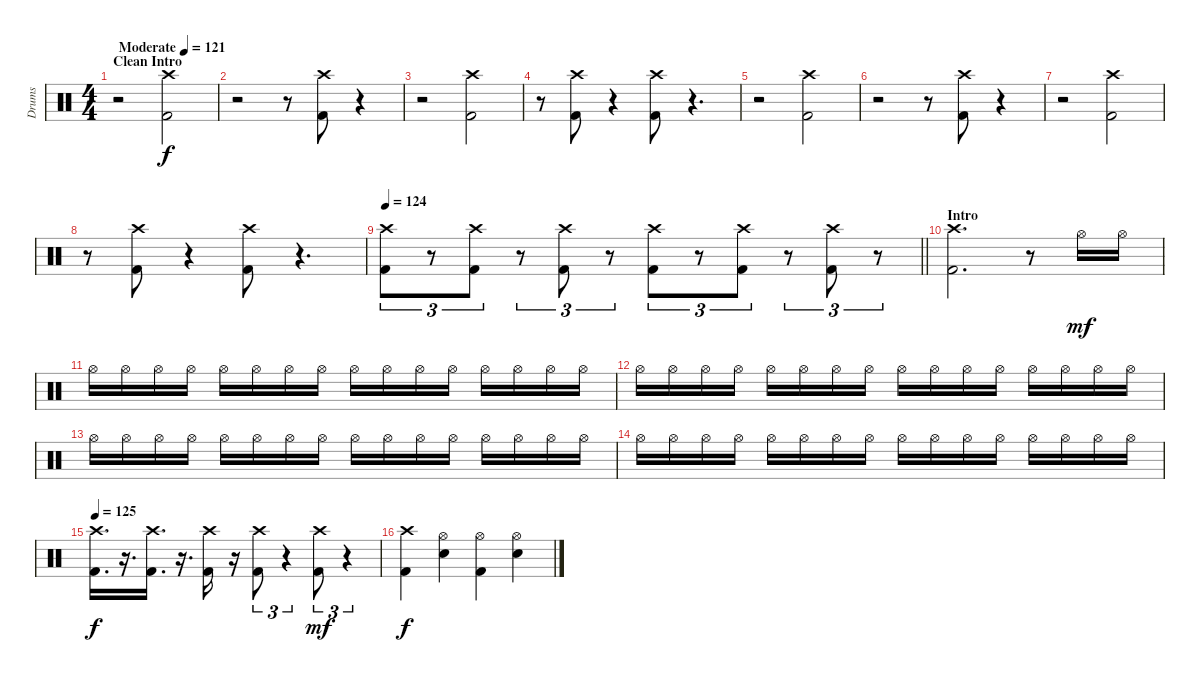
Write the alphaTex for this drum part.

\track ("Drums" "Drums") {instrument percussion}
\staff {score}
\articulation defaults
\ts (4 4)
\section ("" "Clean Intro")
\tempo (121 "Moderate")
\clef neutral
\ks c
r.2{dy f} ("Crash high (hit)" "Kick (hit) 2").2 |
r.2 r.8 ("Crash high (hit)" "Kick (hit) 2").8 r.4 |
r.2 ("Crash high (hit)" "Kick (hit) 2").2 |
r.8 ("Crash high (hit)" "Kick (hit) 2").8 r.4 ("Crash high (hit)" "Kick (hit) 2").8 r.4{d} |
r.2 ("Crash high (hit)" "Kick (hit) 2").2 |
r.2 r.8 ("Crash high (hit)" "Kick (hit) 2").8 r.4 |
r.2 ("Crash high (hit)" "Kick (hit) 2").2 |
r.8 ("Crash high (hit)" "Kick (hit) 2").8 r.4 ("Crash high (hit)" "Kick (hit) 2").8 r.4{d} |
\tempo 124
\barLineRight lightlight
("Crash high (hit)" "Kick (hit) 2").8{tu (3 2)} r.8{tu (3 2)} ("Crash high (hit)" "Kick (hit) 2").8{tu (3 2)} r.8{tu (3 2)} ("Crash high (hit)" "Kick (hit) 2").8{tu (3 2)} r.8{tu (3 2)} ("Crash high (hit)" "Kick (hit) 2").8{tu (3 2)} r.8{tu (3 2)} ("Crash high (hit)" "Kick (hit) 2").8{tu (3 2)} r.8{tu (3 2)} ("Crash high (hit)" "Kick (hit) 2").8{tu (3 2)} r.8{tu (3 2)} |
\section ("" "Intro")
("Crash high (hit)" "Kick (hit) 2").2{d} r.8 "Hi-Hat (open)".16{dy mf} "Hi-Hat (open)".16 |
"Hi-Hat (open)".16 "Hi-Hat (open)".16 "Hi-Hat (open)".16 "Hi-Hat (open)".16 "Hi-Hat (open)".16 "Hi-Hat (open)".16 "Hi-Hat (open)".16 "Hi-Hat (open)".16 "Hi-Hat (open)".16 "Hi-Hat (open)".16 "Hi-Hat (open)".16 "Hi-Hat (open)".16 "Hi-Hat (open)".16 "Hi-Hat (open)".16 "Hi-Hat (open)".16 "Hi-Hat (open)".16 |
"Hi-Hat (open)".16 "Hi-Hat (open)".16 "Hi-Hat (open)".16 "Hi-Hat (open)".16 "Hi-Hat (open)".16 "Hi-Hat (open)".16 "Hi-Hat (open)".16 "Hi-Hat (open)".16 "Hi-Hat (open)".16 "Hi-Hat (open)".16 "Hi-Hat (open)".16 "Hi-Hat (open)".16 "Hi-Hat (open)".16 "Hi-Hat (open)".16 "Hi-Hat (open)".16 "Hi-Hat (open)".16 |
"Hi-Hat (open)".16 "Hi-Hat (open)".16 "Hi-Hat (open)".16 "Hi-Hat (open)".16 "Hi-Hat (open)".16 "Hi-Hat (open)".16 "Hi-Hat (open)".16 "Hi-Hat (open)".16 "Hi-Hat (open)".16 "Hi-Hat (open)".16 "Hi-Hat (open)".16 "Hi-Hat (open)".16 "Hi-Hat (open)".16 "Hi-Hat (open)".16 "Hi-Hat (open)".16 "Hi-Hat (open)".16 |
"Hi-Hat (open)".16 "Hi-Hat (open)".16 "Hi-Hat (open)".16 "Hi-Hat (open)".16 "Hi-Hat (open)".16 "Hi-Hat (open)".16 "Hi-Hat (open)".16 "Hi-Hat (open)".16 "Hi-Hat (open)".16 "Hi-Hat (open)".16 "Hi-Hat (open)".16 "Hi-Hat (open)".16 "Hi-Hat (open)".16 "Hi-Hat (open)".16 "Hi-Hat (open)".16 "Hi-Hat (open)".16 |
\tempo 125
("Crash high (hit)" "Kick (hit) 2").16{d dy f} r.16{d} ("Crash high (hit)" "Kick (hit) 2").16{d} r.16{d} ("Crash high (hit)" "Kick (hit) 2").16 r.16 ("Crash high (hit)" "Kick (hit) 2").8{tu (3 2)} r.4{tu (3 2)} ("Crash high (hit)" "Kick (hit) 2").8{tu (3 2) dy mf} r.4{tu (3 2)} |
("Crash high (hit)" "Kick (hit) 2").4{dy f} ("Hi-Hat (open)" "Snare (hit) 2").4 ("Hi-Hat (open)" "Kick (hit) 2").4 ("Hi-Hat (open)" "Snare (hit) 2").4
